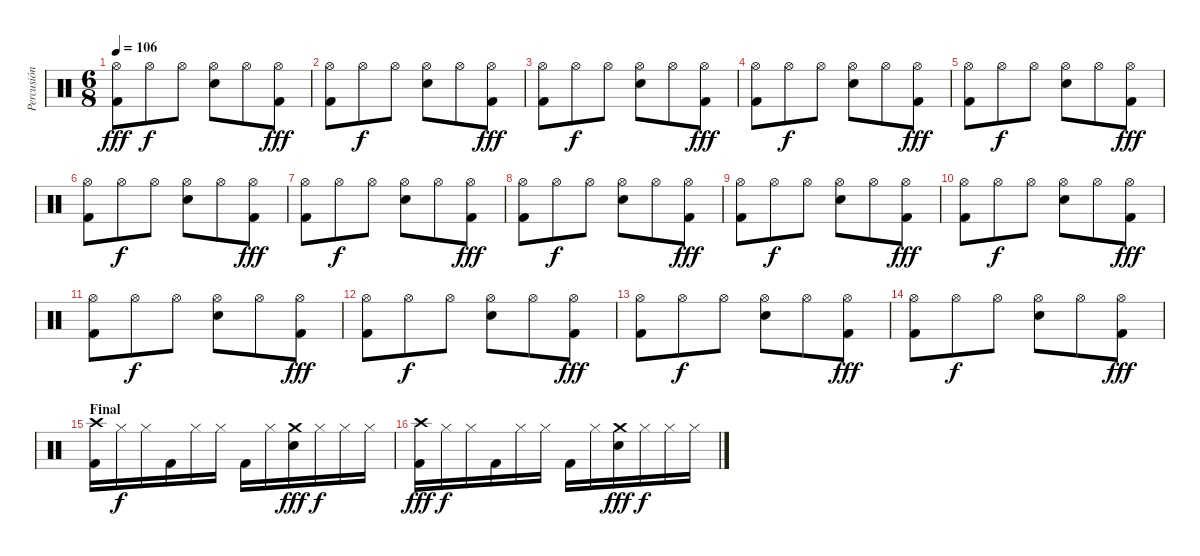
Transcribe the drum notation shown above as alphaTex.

\track ("Percusión" "Percusión") {instrument percussion}
\staff {score}
\articulation defaults
\ts (6 8)
\tempo 106
\clef neutral
\ks c
("Hi-Hat (open)" "Kick (hit) 2").8{dy fff} "Hi-Hat (open)".8{dy f} "Hi-Hat (open)".8 ("Hi-Hat (open)" "Snare (hit) 2").8 "Hi-Hat (open)".8 ("Hi-Hat (open)" "Kick (hit) 2").8{dy fff} |
("Hi-Hat (open)" "Kick (hit) 2").8 "Hi-Hat (open)".8{dy f} "Hi-Hat (open)".8 ("Hi-Hat (open)" "Snare (hit) 2").8 "Hi-Hat (open)".8 ("Hi-Hat (open)" "Kick (hit) 2").8{dy fff} |
("Hi-Hat (open)" "Kick (hit) 2").8 "Hi-Hat (open)".8{dy f} "Hi-Hat (open)".8 ("Hi-Hat (open)" "Snare (hit) 2").8 "Hi-Hat (open)".8 ("Hi-Hat (open)" "Kick (hit) 2").8{dy fff} |
("Hi-Hat (open)" "Kick (hit) 2").8 "Hi-Hat (open)".8{dy f} "Hi-Hat (open)".8 ("Hi-Hat (open)" "Snare (hit) 2").8 "Hi-Hat (open)".8 ("Hi-Hat (open)" "Kick (hit) 2").8{dy fff} |
("Hi-Hat (open)" "Kick (hit) 2").8 "Hi-Hat (open)".8{dy f} "Hi-Hat (open)".8 ("Hi-Hat (open)" "Snare (hit) 2").8 "Hi-Hat (open)".8 ("Hi-Hat (open)" "Kick (hit) 2").8{dy fff} |
("Hi-Hat (open)" "Kick (hit) 2").8 "Hi-Hat (open)".8{dy f} "Hi-Hat (open)".8 ("Hi-Hat (open)" "Snare (hit) 2").8 "Hi-Hat (open)".8 ("Hi-Hat (open)" "Kick (hit) 2").8{dy fff} |
("Hi-Hat (open)" "Kick (hit) 2").8 "Hi-Hat (open)".8{dy f} "Hi-Hat (open)".8 ("Hi-Hat (open)" "Snare (hit) 2").8 "Hi-Hat (open)".8 ("Hi-Hat (open)" "Kick (hit) 2").8{dy fff} |
("Hi-Hat (open)" "Kick (hit) 2").8 "Hi-Hat (open)".8{dy f} "Hi-Hat (open)".8 ("Hi-Hat (open)" "Snare (hit) 2").8 "Hi-Hat (open)".8 ("Hi-Hat (open)" "Kick (hit) 2").8{dy fff} |
("Hi-Hat (open)" "Kick (hit) 2").8 "Hi-Hat (open)".8{dy f} "Hi-Hat (open)".8 ("Hi-Hat (open)" "Snare (hit) 2").8 "Hi-Hat (open)".8 ("Hi-Hat (open)" "Kick (hit) 2").8{dy fff} |
("Hi-Hat (open)" "Kick (hit) 2").8 "Hi-Hat (open)".8{dy f} "Hi-Hat (open)".8 ("Hi-Hat (open)" "Snare (hit) 2").8 "Hi-Hat (open)".8 ("Hi-Hat (open)" "Kick (hit) 2").8{dy fff} |
("Hi-Hat (open)" "Kick (hit) 2").8 "Hi-Hat (open)".8{dy f} "Hi-Hat (open)".8 ("Hi-Hat (open)" "Snare (hit) 2").8 "Hi-Hat (open)".8 ("Hi-Hat (open)" "Kick (hit) 2").8{dy fff} |
("Hi-Hat (open)" "Kick (hit) 2").8 "Hi-Hat (open)".8{dy f} "Hi-Hat (open)".8 ("Hi-Hat (open)" "Snare (hit) 2").8 "Hi-Hat (open)".8 ("Hi-Hat (open)" "Kick (hit) 2").8{dy fff} |
("Hi-Hat (open)" "Kick (hit) 2").8 "Hi-Hat (open)".8{dy f} "Hi-Hat (open)".8 ("Hi-Hat (open)" "Snare (hit) 2").8 "Hi-Hat (open)".8 ("Hi-Hat (open)" "Kick (hit) 2").8{dy fff} |
("Hi-Hat (open)" "Kick (hit) 2").8 "Hi-Hat (open)".8{dy f} "Hi-Hat (open)".8 ("Hi-Hat (open)" "Snare (hit) 2").8 "Hi-Hat (open)".8 ("Hi-Hat (open)" "Kick (hit) 2").8{dy fff} |
\section ("" "Final")
("Kick (hit) 2" "Crash high (hit)").16 "Hi-Hat (closed)".16{dy f} "Hi-Hat (closed)".16 "Kick (hit) 2".16 "Hi-Hat (closed)".16 "Hi-Hat (closed)".16 "Kick (hit) 2".16 "Hi-Hat (closed)".16 ("Snare (hit) 2" "Crash medium (hit)").16{dy fff} "Hi-Hat (closed)".16{dy f} "Hi-Hat (closed)".16 "Hi-Hat (closed)".16 |
("Kick (hit) 2" "Crash high (hit)").16{dy fff} "Hi-Hat (closed)".16{dy f} "Hi-Hat (closed)".16 "Kick (hit) 2".16 "Hi-Hat (closed)".16 "Hi-Hat (closed)".16 "Kick (hit) 2".16 "Hi-Hat (closed)".16 ("Snare (hit) 2" "Crash medium (hit)").16{dy fff} "Hi-Hat (closed)".16{dy f} "Hi-Hat (closed)".16 "Hi-Hat (closed)".16
